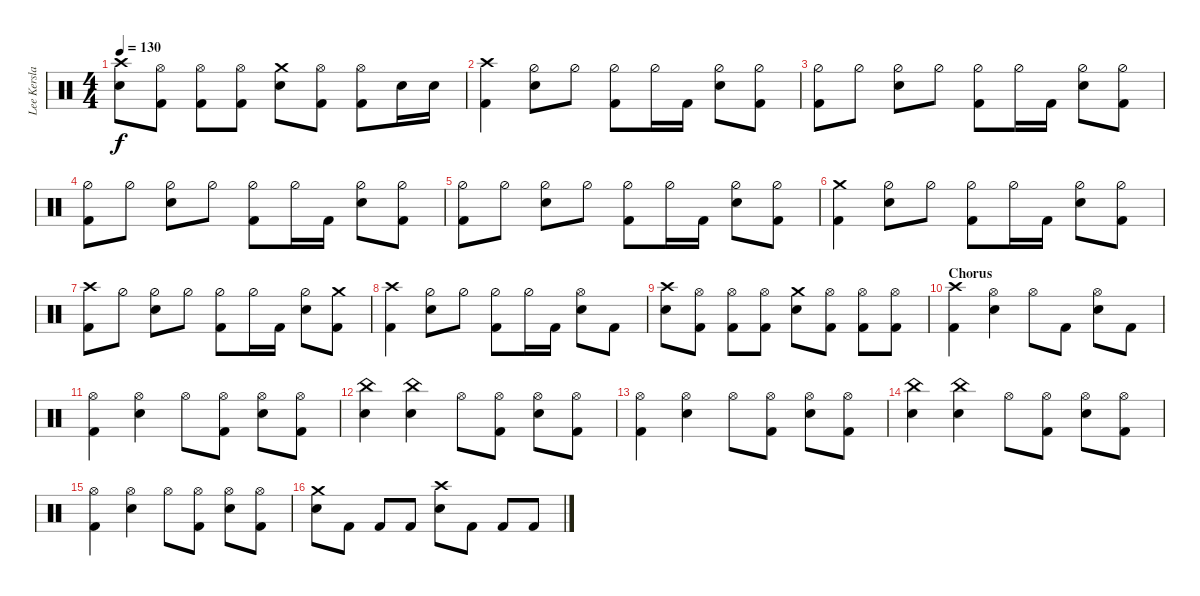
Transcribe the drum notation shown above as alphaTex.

\track ("Lee Kerslake" "Lee Kersla") {instrument percussion}
\staff {score}
\articulation defaults
\ts (4 4)
\tempo 130
\clef neutral
\ks c
("Snare (hit) 2" "Crash high (hit)").8{dy f} ("Kick (hit) 2" "Hi-Hat (open)").8 ("Kick (hit) 2" "Hi-Hat (open)").8 ("Kick (hit) 2" "Hi-Hat (open)").8 ("Snare (hit) 2" "Crash medium (hit)").8 ("Kick (hit) 2" "Hi-Hat (open)").8 ("Kick (hit) 2" "Hi-Hat (open)").8 "Snare (hit) 2".16 "Snare (hit) 2".16 |
("Kick (hit) 2" "Crash high (hit)").4 ("Snare (hit) 2" "Hi-Hat (half)").8 "Hi-Hat (half)".8 ("Kick (hit) 2" "Hi-Hat (half)").8 "Hi-Hat (half)".16 "Kick (hit) 2".16 ("Snare (hit) 2" "Hi-Hat (half)").8 ("Kick (hit) 2" "Hi-Hat (half)").8 |
("Kick (hit) 2" "Hi-Hat (half)").8 "Hi-Hat (half)".8 ("Snare (hit) 2" "Hi-Hat (half)").8 "Hi-Hat (half)".8 ("Kick (hit) 2" "Hi-Hat (half)").8 "Hi-Hat (half)".16 "Kick (hit) 2".16 ("Snare (hit) 2" "Hi-Hat (half)").8 ("Kick (hit) 2" "Hi-Hat (half)").8 |
("Kick (hit) 2" "Hi-Hat (half)").8 "Hi-Hat (half)".8 ("Snare (hit) 2" "Hi-Hat (half)").8 "Hi-Hat (half)".8 ("Kick (hit) 2" "Hi-Hat (half)").8 "Hi-Hat (half)".16 "Kick (hit) 2".16 ("Snare (hit) 2" "Hi-Hat (half)").8 ("Kick (hit) 2" "Hi-Hat (half)").8 |
("Kick (hit) 2" "Hi-Hat (half)").8 "Hi-Hat (half)".8 ("Snare (hit) 2" "Hi-Hat (half)").8 "Hi-Hat (half)".8 ("Kick (hit) 2" "Hi-Hat (half)").8 "Hi-Hat (half)".16 "Kick (hit) 2".16 ("Snare (hit) 2" "Hi-Hat (half)").8 ("Kick (hit) 2" "Hi-Hat (half)").8 |
("Kick (hit) 2" "Crash medium (hit)").4 ("Snare (hit) 2" "Hi-Hat (half)").8 "Hi-Hat (half)".8 ("Kick (hit) 2" "Hi-Hat (half)").8 "Hi-Hat (half)".16 "Kick (hit) 2".16 ("Snare (hit) 2" "Hi-Hat (half)").8 ("Kick (hit) 2" "Hi-Hat (half)").8 |
("Kick (hit) 2" "Crash high (hit)").8 "Hi-Hat (half)".8 ("Snare (hit) 2" "Hi-Hat (half)").8 "Hi-Hat (half)".8 ("Kick (hit) 2" "Hi-Hat (half)").8 "Hi-Hat (half)".16 "Kick (hit) 2".16 ("Snare (hit) 2" "Hi-Hat (half)").8 ("Kick (hit) 2" "Crash medium (hit)").8 |
("Kick (hit) 2" "Crash high (hit)").4 ("Snare (hit) 2" "Hi-Hat (half)").8 "Hi-Hat (half)".8 ("Kick (hit) 2" "Hi-Hat (half)").8 "Hi-Hat (half)".16 "Kick (hit) 2".16 ("Snare (hit) 2" "Hi-Hat (open)").8 "Kick (hit) 2".8 |
("Snare (hit) 2" "Crash high (hit)").8 ("Kick (hit) 2" "Hi-Hat (open)").8 ("Kick (hit) 2" "Hi-Hat (open)").8 ("Kick (hit) 2" "Hi-Hat (open)").8 ("Snare (hit) 2" "Crash medium (hit)").8 ("Kick (hit) 2" "Hi-Hat (open)").8 ("Kick (hit) 2" "Hi-Hat (open)").8 ("Kick (hit) 2" "Hi-Hat (open)").8 |
\section ("" "Chorus")
("Kick (hit) 2" "Crash high (hit)").4 ("Hi-Hat (open)" "Snare (hit) 2").4 "Hi-Hat (open)".8 "Kick (hit) 2".8 ("Snare (hit) 2" "Hi-Hat (open)").8 "Kick (hit) 2".8 |
("Hi-Hat (open)" "Kick (hit) 2").4 ("Hi-Hat (open)" "Snare (hit) 2").4 "Hi-Hat (open)".8 ("Kick (hit) 2" "Hi-Hat (open)").8 ("Snare (hit) 2" "Hi-Hat (open)").8 ("Kick (hit) 2" "Hi-Hat (open)").8 |
("Snare (hit) 2" "China (hit)").4 ("Snare (hit) 2" "China (hit)").4 "Hi-Hat (open)".8 ("Kick (hit) 2" "Hi-Hat (open)").8 ("Snare (hit) 2" "Hi-Hat (open)").8 ("Kick (hit) 2" "Hi-Hat (open)").8 |
("Hi-Hat (open)" "Kick (hit) 2").4 ("Hi-Hat (open)" "Snare (hit) 2").4 "Hi-Hat (open)".8 ("Kick (hit) 2" "Hi-Hat (open)").8 ("Snare (hit) 2" "Hi-Hat (open)").8 ("Kick (hit) 2" "Hi-Hat (open)").8 |
("Snare (hit) 2" "China (hit)").4 ("Snare (hit) 2" "China (hit)").4 "Hi-Hat (open)".8 ("Kick (hit) 2" "Hi-Hat (open)").8 ("Snare (hit) 2" "Hi-Hat (open)").8 ("Kick (hit) 2" "Hi-Hat (open)").8 |
("Hi-Hat (open)" "Kick (hit) 2").4 ("Hi-Hat (open)" "Snare (hit) 2").4 "Hi-Hat (open)".8 ("Kick (hit) 2" "Hi-Hat (open)").8 ("Snare (hit) 2" "Hi-Hat (open)").8 ("Kick (hit) 2" "Hi-Hat (open)").8 |
("Snare (hit) 2" "Crash medium (hit)").8 "Kick (hit) 2".8 "Kick (hit) 2".8 "Kick (hit) 2".8 ("Snare (hit) 2" "Crash high (hit)").8 "Kick (hit) 2".8 "Kick (hit) 2".8 "Kick (hit) 2".8
